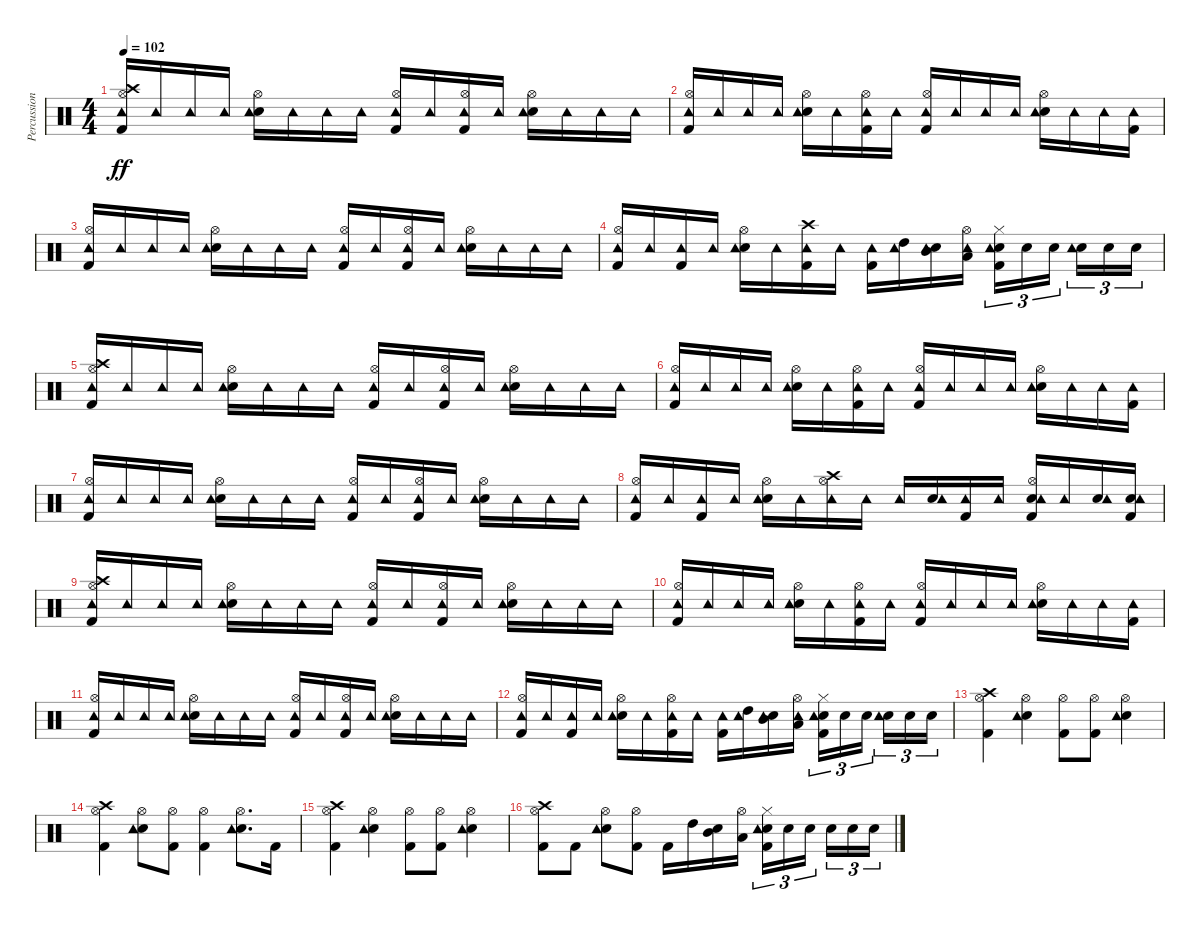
\track ("Percussions" "Percussion") {instrument percussion}
\staff {score}
\articulation defaults
\ts (4 4)
\tempo 102
\clef neutral
\ks c
("Kick (hit) 2" "Hi-Hat (open)" "Crash high (hit)" "Tambourine (hit)").16{dy ff} "Tambourine (hit)".16 "Tambourine (hit)".16 "Tambourine (hit)".16 ("Snare (hit) 2" "Hi-Hat (open)" "Tambourine (hit)").16 "Tambourine (hit)".16 "Tambourine (hit)".16 "Tambourine (hit)".16 ("Kick (hit) 2" "Hi-Hat (open)" "Tambourine (hit)").16 "Tambourine (hit)".16 ("Kick (hit) 2" "Hi-Hat (open)" "Tambourine (hit)").16 "Tambourine (hit)".16 ("Snare (hit) 2" "Hi-Hat (open)" "Tambourine (hit)").16 "Tambourine (hit)".16 "Tambourine (hit)".16 "Tambourine (hit)".16 |
("Kick (hit) 2" "Hi-Hat (open)" "Tambourine (hit)").16 "Tambourine (hit)".16 "Tambourine (hit)".16 "Tambourine (hit)".16 ("Snare (hit) 2" "Hi-Hat (open)" "Tambourine (hit)").16 "Tambourine (hit)".16 ("Kick (hit) 2" "Hi-Hat (open)" "Tambourine (hit)").16 "Tambourine (hit)".16 ("Kick (hit) 2" "Hi-Hat (open)" "Tambourine (hit)").16 "Tambourine (hit)".16 "Tambourine (hit)".16 "Tambourine (hit)".16 ("Snare (hit) 2" "Hi-Hat (open)" "Tambourine (hit)").16 "Tambourine (hit)".16 "Tambourine (hit)".16 ("Kick (hit) 2" "Tambourine (hit)").16 |
("Kick (hit) 2" "Hi-Hat (open)" "Tambourine (hit)").16 "Tambourine (hit)".16 "Tambourine (hit)".16 "Tambourine (hit)".16 ("Snare (hit) 2" "Hi-Hat (open)" "Tambourine (hit)").16 "Tambourine (hit)".16 "Tambourine (hit)".16 "Tambourine (hit)".16 ("Kick (hit) 2" "Hi-Hat (open)" "Tambourine (hit)").16 "Tambourine (hit)".16 ("Kick (hit) 2" "Hi-Hat (open)" "Tambourine (hit)").16 "Tambourine (hit)".16 ("Snare (hit) 2" "Hi-Hat (open)" "Tambourine (hit)").16 "Tambourine (hit)".16 "Tambourine (hit)".16 "Tambourine (hit)".16 |
("Kick (hit) 2" "Hi-Hat (open)" "Tambourine (hit)").16 "Tambourine (hit)".16 ("Kick (hit) 2" "Tambourine (hit)").16 "Tambourine (hit)".16 ("Snare (hit) 2" "Hi-Hat (open)" "Tambourine (hit)").16 "Tambourine (hit)".16 ("Kick (hit) 2" "Crash high (hit)" "Tambourine (hit)").16 "Tambourine (hit)".16 ("Kick (hit) 2" "Tambourine (hit)").16 ("High Tom (hit)" "Tambourine (hit)").16 ("Snare (hit) 2" "Mid Tom (hit)" "Tambourine (hit)").16 ("Low Tom (hit)" "Hi-Hat (open)" "Tambourine (hit)").16 ("Kick (hit) 2" "Snare (hit) 2" "Hi-Hat (closed)" "Tambourine (hit)").16{tu (3 2)} "Snare (hit) 2".16{tu (3 2)} "Snare (hit) 2".16{tu (3 2) beam splitsecondary} ("Snare (hit) 2" "Tambourine (hit)").16{tu (3 2)} "Snare (hit) 2".16{tu (3 2)} "Snare (hit) 2".16{tu (3 2)} |
("Kick (hit) 2" "Hi-Hat (open)" "Crash high (hit)" "Tambourine (hit)").16 "Tambourine (hit)".16 "Tambourine (hit)".16 "Tambourine (hit)".16 ("Snare (hit) 2" "Hi-Hat (open)" "Tambourine (hit)").16 "Tambourine (hit)".16 "Tambourine (hit)".16 "Tambourine (hit)".16 ("Kick (hit) 2" "Hi-Hat (open)" "Tambourine (hit)").16 "Tambourine (hit)".16 ("Kick (hit) 2" "Hi-Hat (open)" "Tambourine (hit)").16 "Tambourine (hit)".16 ("Snare (hit) 2" "Hi-Hat (open)" "Tambourine (hit)").16 "Tambourine (hit)".16 "Tambourine (hit)".16 "Tambourine (hit)".16 |
("Kick (hit) 2" "Hi-Hat (open)" "Tambourine (hit)").16 "Tambourine (hit)".16 "Tambourine (hit)".16 "Tambourine (hit)".16 ("Snare (hit) 2" "Hi-Hat (open)" "Tambourine (hit)").16 "Tambourine (hit)".16 ("Kick (hit) 2" "Hi-Hat (open)" "Tambourine (hit)").16 "Tambourine (hit)".16 ("Kick (hit) 2" "Hi-Hat (open)" "Tambourine (hit)").16 "Tambourine (hit)".16 "Tambourine (hit)".16 "Tambourine (hit)".16 ("Snare (hit) 2" "Hi-Hat (open)" "Tambourine (hit)").16 "Tambourine (hit)".16 "Tambourine (hit)".16 ("Kick (hit) 2" "Tambourine (hit)").16 |
("Kick (hit) 2" "Hi-Hat (open)" "Tambourine (hit)").16 "Tambourine (hit)".16 "Tambourine (hit)".16 "Tambourine (hit)".16 ("Snare (hit) 2" "Hi-Hat (open)" "Tambourine (hit)").16 "Tambourine (hit)".16 "Tambourine (hit)".16 "Tambourine (hit)".16 ("Kick (hit) 2" "Hi-Hat (open)" "Tambourine (hit)").16 "Tambourine (hit)".16 ("Kick (hit) 2" "Hi-Hat (open)" "Tambourine (hit)").16 "Tambourine (hit)".16 ("Snare (hit) 2" "Hi-Hat (open)" "Tambourine (hit)").16 "Tambourine (hit)".16 "Tambourine (hit)".16 "Tambourine (hit)".16 |
("Kick (hit) 2" "Hi-Hat (open)" "Tambourine (hit)").16 "Tambourine (hit)".16 ("Kick (hit) 2" "Tambourine (hit)").16 "Tambourine (hit)".16 ("Snare (hit) 2" "Hi-Hat (open)" "Tambourine (hit)").16 "Tambourine (hit)".16 ("Hi-Hat (open)" "Crash high (hit)" "Tambourine (hit)").16 "Tambourine (hit)".16 "Tambourine (hit)".16 ("Snare (hit) 2" "Tambourine (hit)").16 ("Kick (hit) 2" "Tambourine (hit)").16 "Tambourine (hit)".16 ("Kick (hit) 2" "Snare (hit) 2" "Hi-Hat (open)" "Tambourine (hit)").16 "Tambourine (hit)".16 ("Snare (hit) 2" "Tambourine (hit)").16 ("Kick (hit) 2" "Snare (hit) 2" "Tambourine (hit)").16 |
("Kick (hit) 2" "Hi-Hat (open)" "Crash high (hit)" "Tambourine (hit)").16 "Tambourine (hit)".16 "Tambourine (hit)".16 "Tambourine (hit)".16 ("Snare (hit) 2" "Hi-Hat (open)" "Tambourine (hit)").16 "Tambourine (hit)".16 "Tambourine (hit)".16 "Tambourine (hit)".16 ("Kick (hit) 2" "Hi-Hat (open)" "Tambourine (hit)").16 "Tambourine (hit)".16 ("Kick (hit) 2" "Hi-Hat (open)" "Tambourine (hit)").16 "Tambourine (hit)".16 ("Snare (hit) 2" "Hi-Hat (open)" "Tambourine (hit)").16 "Tambourine (hit)".16 "Tambourine (hit)".16 "Tambourine (hit)".16 |
("Kick (hit) 2" "Hi-Hat (open)" "Tambourine (hit)").16 "Tambourine (hit)".16 "Tambourine (hit)".16 "Tambourine (hit)".16 ("Snare (hit) 2" "Hi-Hat (open)" "Tambourine (hit)").16 "Tambourine (hit)".16 ("Kick (hit) 2" "Hi-Hat (open)" "Tambourine (hit)").16 "Tambourine (hit)".16 ("Kick (hit) 2" "Hi-Hat (open)" "Tambourine (hit)").16 "Tambourine (hit)".16 "Tambourine (hit)".16 "Tambourine (hit)".16 ("Snare (hit) 2" "Hi-Hat (open)" "Tambourine (hit)").16 "Tambourine (hit)".16 "Tambourine (hit)".16 ("Kick (hit) 2" "Tambourine (hit)").16 |
("Kick (hit) 2" "Hi-Hat (open)" "Tambourine (hit)").16 "Tambourine (hit)".16 "Tambourine (hit)".16 "Tambourine (hit)".16 ("Snare (hit) 2" "Hi-Hat (open)" "Tambourine (hit)").16 "Tambourine (hit)".16 "Tambourine (hit)".16 "Tambourine (hit)".16 ("Kick (hit) 2" "Hi-Hat (open)" "Tambourine (hit)").16 "Tambourine (hit)".16 ("Kick (hit) 2" "Hi-Hat (open)" "Tambourine (hit)").16 "Tambourine (hit)".16 ("Snare (hit) 2" "Hi-Hat (open)" "Tambourine (hit)").16 "Tambourine (hit)".16 "Tambourine (hit)".16 "Tambourine (hit)".16 |
("Kick (hit) 2" "Hi-Hat (open)" "Tambourine (hit)").16 "Tambourine (hit)".16 ("Kick (hit) 2" "Tambourine (hit)").16 "Tambourine (hit)".16 ("Snare (hit) 2" "Hi-Hat (open)" "Tambourine (hit)").16 "Tambourine (hit)".16 ("Kick (hit) 2" "Hi-Hat (open)" "Tambourine (hit)").16 "Tambourine (hit)".16 ("Kick (hit) 2" "Tambourine (hit)").16 ("High Tom (hit)" "Tambourine (hit)").16 ("Snare (hit) 2" "Mid Tom (hit)" "Tambourine (hit)").16 ("Low Tom (hit)" "Hi-Hat (open)" "Tambourine (hit)").16 ("Kick (hit) 2" "Snare (hit) 2" "Hi-Hat (closed)" "Tambourine (hit)").16{tu (3 2)} "Snare (hit) 2".16{tu (3 2)} "Snare (hit) 2".16{tu (3 2) beam splitsecondary} ("Snare (hit) 2" "Tambourine (hit)").16{tu (3 2)} "Snare (hit) 2".16{tu (3 2)} "Snare (hit) 2".16{tu (3 2)} |
("Kick (hit) 2" "Hi-Hat (open)" "Crash high (hit)").4 ("Snare (hit) 2" "Hi-Hat (open)" "Tambourine (hit)").4 ("Kick (hit) 2" "Hi-Hat (open)").8 ("Kick (hit) 2" "Hi-Hat (open)").8 ("Snare (hit) 2" "Hi-Hat (open)" "Tambourine (hit)").4 |
("Kick (hit) 2" "Hi-Hat (open)" "Crash high (hit)").4 ("Snare (hit) 2" "Hi-Hat (open)" "Tambourine (hit)").8 ("Kick (hit) 2" "Hi-Hat (open)").8 ("Kick (hit) 2" "Hi-Hat (open)").4 ("Snare (hit) 2" "Hi-Hat (open)" "Tambourine (hit)").8{d} "Kick (hit) 2".16 |
("Kick (hit) 2" "Hi-Hat (open)" "Crash high (hit)").4 ("Snare (hit) 2" "Hi-Hat (open)" "Tambourine (hit)").4 ("Kick (hit) 2" "Hi-Hat (open)").8 ("Kick (hit) 2" "Hi-Hat (open)").8 ("Snare (hit) 2" "Hi-Hat (open)" "Tambourine (hit)").4 |
("Kick (hit) 2" "Hi-Hat (open)" "Crash high (hit)").8 "Kick (hit) 2".8 ("Snare (hit) 2" "Hi-Hat (open)" "Tambourine (hit)").8 ("Kick (hit) 2" "Hi-Hat (open)").8 "Kick (hit) 2".16 "High Tom (hit)".16 ("Snare (hit) 2" "Mid Tom (hit)").16 ("Low Tom (hit)" "Hi-Hat (open)").16 ("Kick (hit) 2" "Snare (hit) 2" "Hi-Hat (closed)" "Tambourine (hit)").16{tu (3 2)} "Snare (hit) 2".16{tu (3 2)} "Snare (hit) 2".16{tu (3 2) beam splitsecondary} "Snare (hit) 2".16{tu (3 2)} "Snare (hit) 2".16{tu (3 2)} "Snare (hit) 2".16{tu (3 2)}
